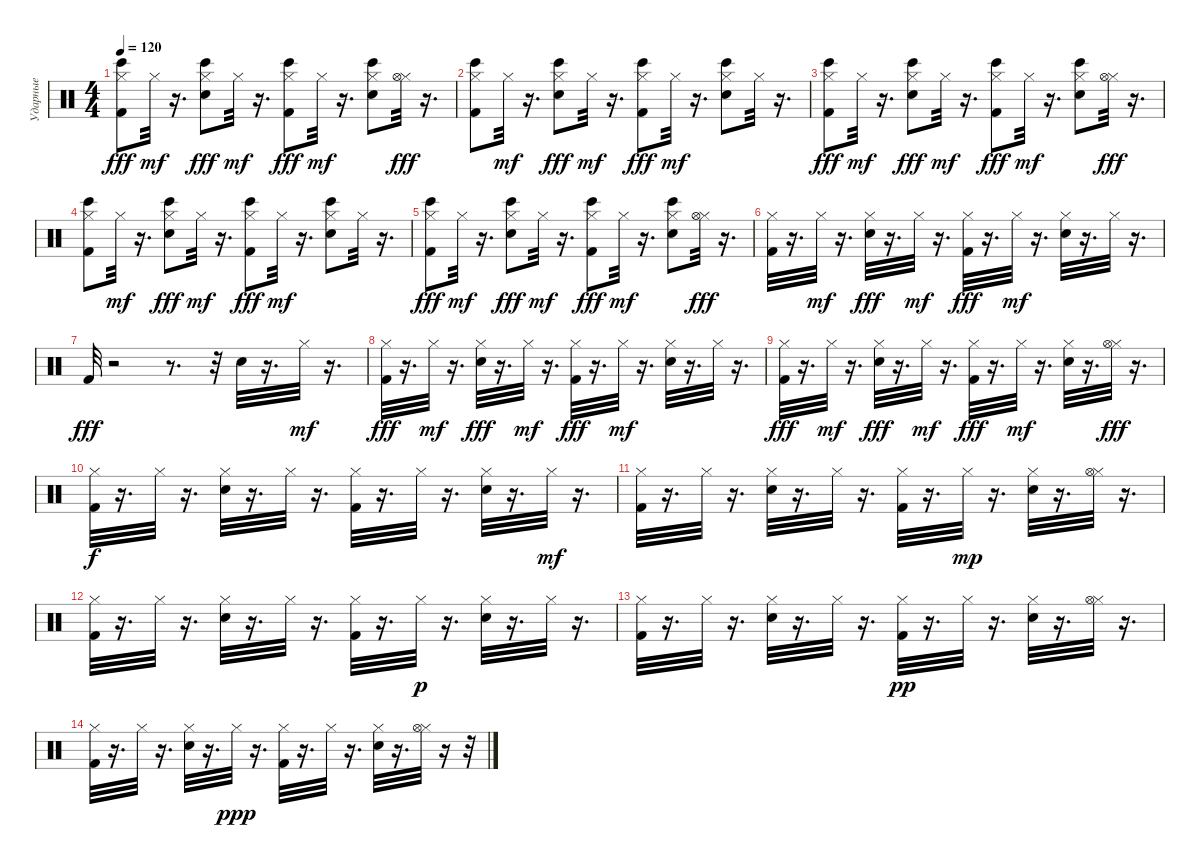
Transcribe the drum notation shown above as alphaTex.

\track ("Ударные" "Ударные") {instrument percussion}
\staff {score}
\articulation defaults
\ts (4 4)
\tempo 120
\clef neutral
\ks c
("Bongo High (hit)" "Hi-Hat (closed)" "Kick (hit) 2").8{dy fff} "Hi-Hat (closed)".32{dy mf} r.16{d} ("Bongo High (hit)" "Hi-Hat (closed)" "Snare (hit) 2").8{dy fff} "Hi-Hat (closed)".32{dy mf} r.16{d} ("Bongo High (hit)" "Hi-Hat (closed)" "Kick (hit) 2").8{dy fff} "Hi-Hat (closed)".32{dy mf} r.16{d} ("Bongo High (hit)" "Snare (hit) 2" "Hi-Hat (closed)").8 ("Hi-Hat (closed)" "Hi-Hat (open)").32{dy fff} r.16{d} |
("Bongo High (hit)" "Hi-Hat (closed)" "Kick (hit) 2").8 "Hi-Hat (closed)".32{dy mf} r.16{d} ("Bongo High (hit)" "Hi-Hat (closed)" "Snare (hit) 2").8{dy fff} "Hi-Hat (closed)".32{dy mf} r.16{d} ("Bongo High (hit)" "Hi-Hat (closed)" "Kick (hit) 2").8{dy fff} "Hi-Hat (closed)".32{dy mf} r.16{d} ("Bongo High (hit)" "Snare (hit) 2" "Hi-Hat (closed)").8 "Hi-Hat (closed)".32 r.16{d} |
("Bongo High (hit)" "Hi-Hat (closed)" "Kick (hit) 2").8{dy fff} "Hi-Hat (closed)".32{dy mf} r.16{d} ("Bongo High (hit)" "Hi-Hat (closed)" "Snare (hit) 2").8{dy fff} "Hi-Hat (closed)".32{dy mf} r.16{d} ("Bongo High (hit)" "Hi-Hat (closed)" "Kick (hit) 2").8{dy fff} "Hi-Hat (closed)".32{dy mf} r.16{d} ("Bongo High (hit)" "Snare (hit) 2" "Hi-Hat (closed)").8 ("Hi-Hat (closed)" "Hi-Hat (open)").32{dy fff} r.16{d} |
("Bongo High (hit)" "Hi-Hat (closed)" "Kick (hit) 2").8 "Hi-Hat (closed)".32{dy mf} r.16{d} ("Bongo High (hit)" "Hi-Hat (closed)" "Snare (hit) 2").8{dy fff} "Hi-Hat (closed)".32{dy mf} r.16{d} ("Bongo High (hit)" "Hi-Hat (closed)" "Kick (hit) 2").8{dy fff} "Hi-Hat (closed)".32{dy mf} r.16{d} ("Bongo High (hit)" "Snare (hit) 2" "Hi-Hat (closed)").8 "Hi-Hat (closed)".32 r.16{d} |
("Bongo High (hit)" "Hi-Hat (closed)" "Kick (hit) 2").8{dy fff} "Hi-Hat (closed)".32{dy mf} r.16{d} ("Bongo High (hit)" "Hi-Hat (closed)" "Snare (hit) 2").8{dy fff} "Hi-Hat (closed)".32{dy mf} r.16{d} ("Bongo High (hit)" "Hi-Hat (closed)" "Kick (hit) 2").8{dy fff} "Hi-Hat (closed)".32{dy mf} r.16{d} ("Bongo High (hit)" "Snare (hit) 2" "Hi-Hat (closed)").8 ("Hi-Hat (closed)" "Hi-Hat (open)").32{dy fff} r.16{d} |
("Hi-Hat (closed)" "Kick (hit) 2").32 r.16{d} "Hi-Hat (closed)".32{dy mf} r.16{d} ("Hi-Hat (closed)" "Snare (hit) 2").32{dy fff} r.16{d} "Hi-Hat (closed)".32{dy mf} r.16{d} ("Hi-Hat (closed)" "Kick (hit) 2").32{dy fff} r.16{d} "Hi-Hat (closed)".32{dy mf} r.16{d} ("Snare (hit) 2" "Hi-Hat (closed)").32 r.16{d} "Hi-Hat (closed)".32 r.16{d} |
"Kick (hit) 2".32{dy fff} r.2 r.8{d} r.32 "Snare (hit) 2".32 r.16{d} "Hi-Hat (closed)".32{dy mf} r.16{d} |
("Hi-Hat (closed)" "Kick (hit) 2").32{dy fff} r.16{d} "Hi-Hat (closed)".32{dy mf} r.16{d} ("Hi-Hat (closed)" "Snare (hit) 2").32{dy fff} r.16{d} "Hi-Hat (closed)".32{dy mf} r.16{d} ("Hi-Hat (closed)" "Kick (hit) 2").32{dy fff} r.16{d} "Hi-Hat (closed)".32{dy mf} r.16{d} ("Snare (hit) 2" "Hi-Hat (closed)").32 r.16{d} "Hi-Hat (closed)".32 r.16{d} |
("Hi-Hat (closed)" "Kick (hit) 2").32{dy fff} r.16{d} "Hi-Hat (closed)".32{dy mf} r.16{d} ("Hi-Hat (closed)" "Snare (hit) 2").32{dy fff} r.16{d} "Hi-Hat (closed)".32{dy mf} r.16{d} ("Hi-Hat (closed)" "Kick (hit) 2").32{dy fff} r.16{d} "Hi-Hat (closed)".32{dy mf} r.16{d} ("Snare (hit) 2" "Hi-Hat (closed)").32 r.16{d} ("Hi-Hat (closed)" "Hi-Hat (open)").32{dy fff} r.16{d} |
("Hi-Hat (closed)" "Kick (hit) 2").32{dy f} r.16{d} "Hi-Hat (closed)".32 r.16{d} ("Hi-Hat (closed)" "Snare (hit) 2").32 r.16{d} "Hi-Hat (closed)".32 r.16{d} ("Hi-Hat (closed)" "Kick (hit) 2").32 r.16{d} "Hi-Hat (closed)".32 r.16{d} ("Snare (hit) 2" "Hi-Hat (closed)").32 r.16{d} "Hi-Hat (closed)".32{dy mf} r.16{d} |
("Hi-Hat (closed)" "Kick (hit) 2").32 r.16{d} "Hi-Hat (closed)".32 r.16{d} ("Hi-Hat (closed)" "Snare (hit) 2").32 r.16{d} "Hi-Hat (closed)".32 r.16{d} ("Hi-Hat (closed)" "Kick (hit) 2").32 r.16{d} "Hi-Hat (closed)".32{dy mp} r.16{d} ("Snare (hit) 2" "Hi-Hat (closed)").32 r.16{d} ("Hi-Hat (closed)" "Hi-Hat (open)").32 r.16{d} |
("Hi-Hat (closed)" "Kick (hit) 2").32 r.16{d} "Hi-Hat (closed)".32 r.16{d} ("Hi-Hat (closed)" "Snare (hit) 2").32 r.16{d} "Hi-Hat (closed)".32 r.16{d} ("Hi-Hat (closed)" "Kick (hit) 2").32 r.16{d} "Hi-Hat (closed)".32{dy p} r.16{d} ("Snare (hit) 2" "Hi-Hat (closed)").32 r.16{d} "Hi-Hat (closed)".32 r.16{d} |
("Hi-Hat (closed)" "Kick (hit) 2").32 r.16{d} "Hi-Hat (closed)".32 r.16{d} ("Hi-Hat (closed)" "Snare (hit) 2").32 r.16{d} "Hi-Hat (closed)".32 r.16{d} ("Hi-Hat (closed)" "Kick (hit) 2").32{dy pp} r.16{d} "Hi-Hat (closed)".32 r.16{d} ("Snare (hit) 2" "Hi-Hat (closed)").32 r.16{d} ("Hi-Hat (closed)" "Hi-Hat (open)").32 r.16{d} |
("Hi-Hat (closed)" "Kick (hit) 2").32 r.16{d} "Hi-Hat (closed)".32 r.16{d} ("Hi-Hat (closed)" "Snare (hit) 2").32 r.16{d} "Hi-Hat (closed)".32{dy ppp} r.16{d} ("Hi-Hat (closed)" "Kick (hit) 2").32 r.16{d} "Hi-Hat (closed)".32 r.16{d} ("Snare (hit) 2" "Hi-Hat (closed)").32 r.16{d} ("Hi-Hat (closed)" "Hi-Hat (open)").32 r.16 r.32
